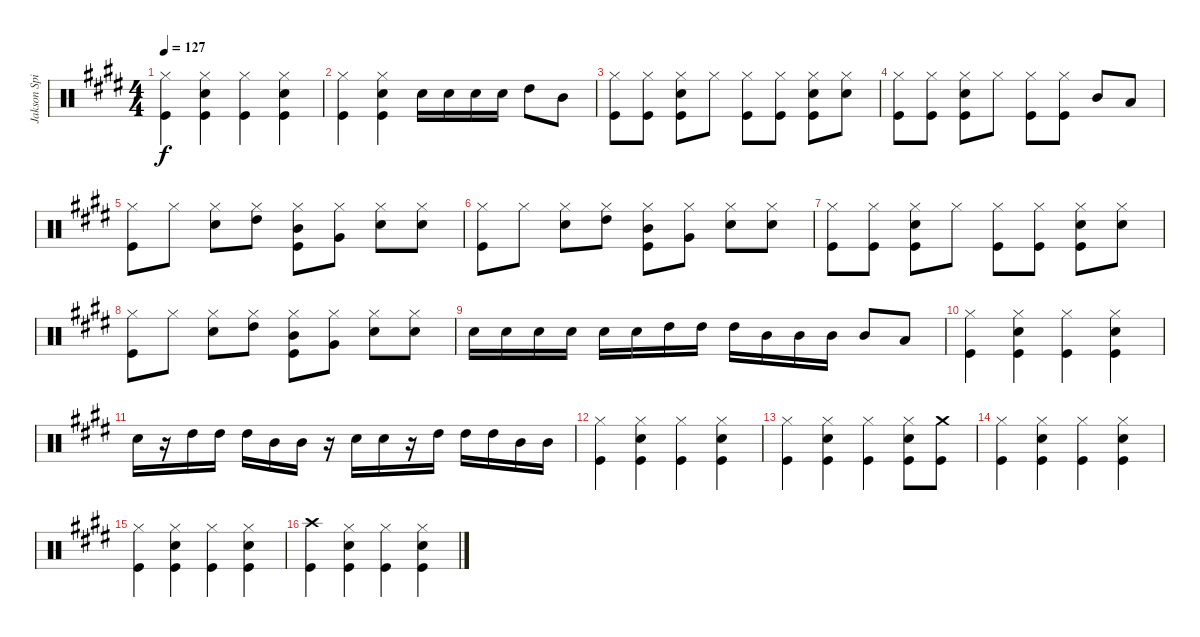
\track ("Jakson Spiers Drums" "Jakson Spi") {instrument percussion}
\staff {score}
\articulation defaults
\ts (4 4)
\tempo 127
\clef neutral
\ks e
("Hi-Hat (closed)" "Kick (hit)").4{dy f} ("Hi-Hat (closed)" "Snare (hit) 2" "Kick (hit)").4 ("Hi-Hat (closed)" "Kick (hit)").4 ("Hi-Hat (closed)" "Snare (hit) 2" "Kick (hit)").4 |
("Hi-Hat (closed)" "Kick (hit)").4 ("Hi-Hat (closed)" "Snare (hit) 2" "Kick (hit)").4 "Snare (hit) 2".16 "Snare (hit) 2".16 "Snare (hit) 2".16 "Snare (hit) 2".16 "High Tom (hit)".8 "Mid Tom (hit)".8 |
("Hi-Hat (closed)" "Kick (hit)").8 ("Hi-Hat (closed)" "Kick (hit)").8 ("Hi-Hat (closed)" "Snare (hit) 2" "Kick (hit)").8 "Hi-Hat (closed)".8 ("Hi-Hat (closed)" "Kick (hit)").8 ("Hi-Hat (closed)" "Kick (hit)").8 ("Hi-Hat (closed)" "Snare (hit) 2" "Kick (hit)").8 ("Hi-Hat (closed)" "Snare (hit) 2").8 |
("Hi-Hat (closed)" "Kick (hit)").8 ("Hi-Hat (closed)" "Kick (hit)").8 ("Hi-Hat (closed)" "Snare (hit) 2" "Kick (hit)").8 "Hi-Hat (closed)".8 ("Hi-Hat (closed)" "Kick (hit)").8 ("Hi-Hat (closed)" "Kick (hit)").8 "Mid Tom (hit)".8 "Low Tom (hit)".8 |
("Hi-Hat (closed)" "Kick (hit)").8 "Hi-Hat (closed)".8 ("Hi-Hat (closed)" "Snare (hit) 2").8 ("Hi-Hat (closed)" "High Tom (hit)").8 ("Hi-Hat (closed)" "Mid Tom (hit)" "Kick (hit)").8 ("Hi-Hat (closed)" "Very Low Tom (hit)").8 ("Hi-Hat (closed)" "Snare (hit) 2").8 ("Hi-Hat (closed)" "Snare (hit) 2").8 |
("Hi-Hat (closed)" "Kick (hit)").8 "Hi-Hat (closed)".8 ("Hi-Hat (closed)" "Snare (hit) 2").8 ("Hi-Hat (closed)" "High Tom (hit)").8 ("Hi-Hat (closed)" "Mid Tom (hit)" "Kick (hit)").8 ("Hi-Hat (closed)" "Very Low Tom (hit)").8 ("Hi-Hat (closed)" "Snare (hit) 2").8 ("Hi-Hat (closed)" "Snare (hit) 2").8 |
("Hi-Hat (closed)" "Kick (hit)").8 ("Hi-Hat (closed)" "Kick (hit)").8 ("Hi-Hat (closed)" "Snare (hit) 2" "Kick (hit)").8 "Hi-Hat (closed)".8 ("Hi-Hat (closed)" "Kick (hit)").8 ("Hi-Hat (closed)" "Kick (hit)").8 ("Hi-Hat (closed)" "Snare (hit) 2" "Kick (hit)").8 ("Hi-Hat (closed)" "Snare (hit) 2").8 |
("Hi-Hat (closed)" "Kick (hit)").8 "Hi-Hat (closed)".8 ("Hi-Hat (closed)" "Snare (hit) 2").8 ("Hi-Hat (closed)" "High Tom (hit)").8 ("Hi-Hat (closed)" "Mid Tom (hit)" "Kick (hit)").8 ("Hi-Hat (closed)" "Very Low Tom (hit)").8 ("Hi-Hat (closed)" "Snare (hit) 2").8 ("Hi-Hat (closed)" "Snare (hit) 2").8 |
"Snare (hit) 2".16 "Snare (hit) 2".16 "Snare (hit) 2".16 "Snare (hit) 2".16 "Snare (hit) 2".16 "Snare (hit) 2".16 "High Tom (hit)".16 "High Tom (hit)".16 "High Tom (hit)".16 "Mid Tom (hit)".16 "Mid Tom (hit)".16 "Mid Tom (hit)".16 "Mid Tom (hit)".8 "Low Tom (hit)".8 |
("Hi-Hat (closed)" "Kick (hit)").4 ("Hi-Hat (closed)" "Snare (hit) 2" "Kick (hit)").4 ("Hi-Hat (closed)" "Kick (hit)").4 ("Hi-Hat (closed)" "Snare (hit) 2" "Kick (hit)").4 |
"Snare (hit) 2".16 r.16 "High Tom (hit)".16 "High Tom (hit)".16 "High Tom (hit)".16 "Mid Tom (hit)".16 "Mid Tom (hit)".16 r.16 "Snare (hit) 2".16 "Snare (hit) 2".16 r.16 "High Tom (hit)".16 "High Tom (hit)".16 "High Tom (hit)".16 "Mid Tom (hit)".16 "Mid Tom (hit)".16 |
("Hi-Hat (closed)" "Kick (hit)").4 ("Hi-Hat (closed)" "Snare (hit) 2" "Kick (hit)").4 ("Hi-Hat (closed)" "Kick (hit)").4 ("Hi-Hat (closed)" "Snare (hit) 2" "Kick (hit)").4 |
("Hi-Hat (closed)" "Kick (hit)").4 ("Hi-Hat (closed)" "Snare (hit) 2" "Kick (hit)").4 ("Hi-Hat (closed)" "Kick (hit)").4 ("Hi-Hat (closed)" "Snare (hit) 2" "Kick (hit)").8 ("Crash medium (hit)" "Kick (hit)").8 |
("Hi-Hat (closed)" "Kick (hit)").4 ("Hi-Hat (closed)" "Snare (hit) 2" "Kick (hit)").4 ("Hi-Hat (closed)" "Kick (hit)").4 ("Hi-Hat (closed)" "Snare (hit) 2" "Kick (hit)").4 |
("Hi-Hat (closed)" "Kick (hit)").4 ("Hi-Hat (closed)" "Snare (hit) 2" "Kick (hit)").4 ("Hi-Hat (closed)" "Kick (hit)").4 ("Hi-Hat (closed)" "Snare (hit) 2" "Kick (hit)").4 |
("Crash high (hit)" "Kick (hit)").4 ("Hi-Hat (closed)" "Snare (hit) 2" "Kick (hit)").4 ("Hi-Hat (closed)" "Kick (hit)").4 ("Hi-Hat (closed)" "Snare (hit) 2" "Kick (hit)").4
